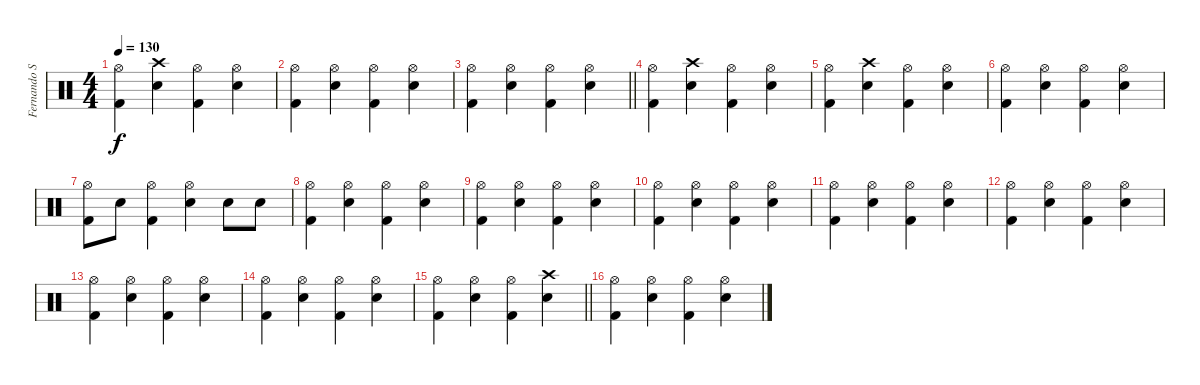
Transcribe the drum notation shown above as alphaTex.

\track ("Fernando Scarcella" "Fernando S") {instrument percussion}
\staff {score}
\articulation defaults
\ts (4 4)
\tempo 130
\clef neutral
\ks c
("Hi-Hat (open)" "Kick (hit) 2").4{dy f} ("Crash high (hit)" "Snare (hit) 2").4 ("Hi-Hat (open)" "Kick (hit) 2").4 ("Hi-Hat (open)" "Snare (hit) 2").4 |
("Hi-Hat (open)" "Kick (hit) 2").4 ("Hi-Hat (open)" "Snare (hit) 2").4 ("Hi-Hat (open)" "Kick (hit) 2").4 ("Hi-Hat (open)" "Snare (hit) 2").4 |
\barLineRight lightlight
("Hi-Hat (open)" "Kick (hit) 2").4 ("Hi-Hat (open)" "Snare (hit) 2").4 ("Hi-Hat (open)" "Kick (hit) 2").4 ("Hi-Hat (open)" "Snare (hit) 2").4 |
("Hi-Hat (open)" "Kick (hit) 2").4 ("Crash high (hit)" "Snare (hit) 2").4 ("Hi-Hat (open)" "Kick (hit) 2").4 ("Hi-Hat (open)" "Snare (hit) 2").4 |
("Hi-Hat (open)" "Kick (hit) 2").4 ("Crash high (hit)" "Snare (hit) 2").4 ("Hi-Hat (open)" "Kick (hit) 2").4 ("Hi-Hat (open)" "Snare (hit) 2").4 |
("Hi-Hat (open)" "Kick (hit) 2").4 ("Hi-Hat (open)" "Snare (hit) 2").4 ("Hi-Hat (open)" "Kick (hit) 2").4 ("Hi-Hat (open)" "Snare (hit) 2").4 |
("Hi-Hat (open)" "Kick (hit) 2").8 "Snare (hit) 2".8 ("Hi-Hat (open)" "Kick (hit) 2").4 ("Hi-Hat (open)" "Snare (hit) 2").4 "Snare (hit) 2".8 "Snare (hit) 2".8 |
("Hi-Hat (open)" "Kick (hit) 2").4 ("Hi-Hat (open)" "Snare (hit) 2").4 ("Hi-Hat (open)" "Kick (hit) 2").4 ("Hi-Hat (open)" "Snare (hit) 2").4 |
("Hi-Hat (open)" "Kick (hit) 2").4 ("Hi-Hat (open)" "Snare (hit) 2").4 ("Hi-Hat (open)" "Kick (hit) 2").4 ("Hi-Hat (open)" "Snare (hit) 2").4 |
("Hi-Hat (open)" "Kick (hit) 2").4 ("Hi-Hat (open)" "Snare (hit) 2").4 ("Hi-Hat (open)" "Kick (hit) 2").4 ("Hi-Hat (open)" "Snare (hit) 2").4 |
("Hi-Hat (open)" "Kick (hit) 2").4 ("Hi-Hat (open)" "Snare (hit) 2").4 ("Hi-Hat (open)" "Kick (hit) 2").4 ("Hi-Hat (open)" "Snare (hit) 2").4 |
("Hi-Hat (open)" "Kick (hit) 2").4 ("Hi-Hat (open)" "Snare (hit) 2").4 ("Hi-Hat (open)" "Kick (hit) 2").4 ("Hi-Hat (open)" "Snare (hit) 2").4 |
("Hi-Hat (open)" "Kick (hit) 2").4 ("Hi-Hat (open)" "Snare (hit) 2").4 ("Hi-Hat (open)" "Kick (hit) 2").4 ("Hi-Hat (open)" "Snare (hit) 2").4 |
("Hi-Hat (open)" "Kick (hit) 2").4 ("Hi-Hat (open)" "Snare (hit) 2").4 ("Hi-Hat (open)" "Kick (hit) 2").4 ("Hi-Hat (open)" "Snare (hit) 2").4 |
\barLineRight lightlight
("Hi-Hat (open)" "Kick (hit) 2").4 ("Hi-Hat (open)" "Snare (hit) 2").4 ("Hi-Hat (open)" "Kick (hit) 2").4 ("Crash high (hit)" "Snare (hit) 2").4 |
("Hi-Hat (open)" "Kick (hit) 2").4 ("Hi-Hat (open)" "Snare (hit) 2").4 ("Hi-Hat (open)" "Kick (hit) 2").4 ("Hi-Hat (open)" "Snare (hit) 2").4
